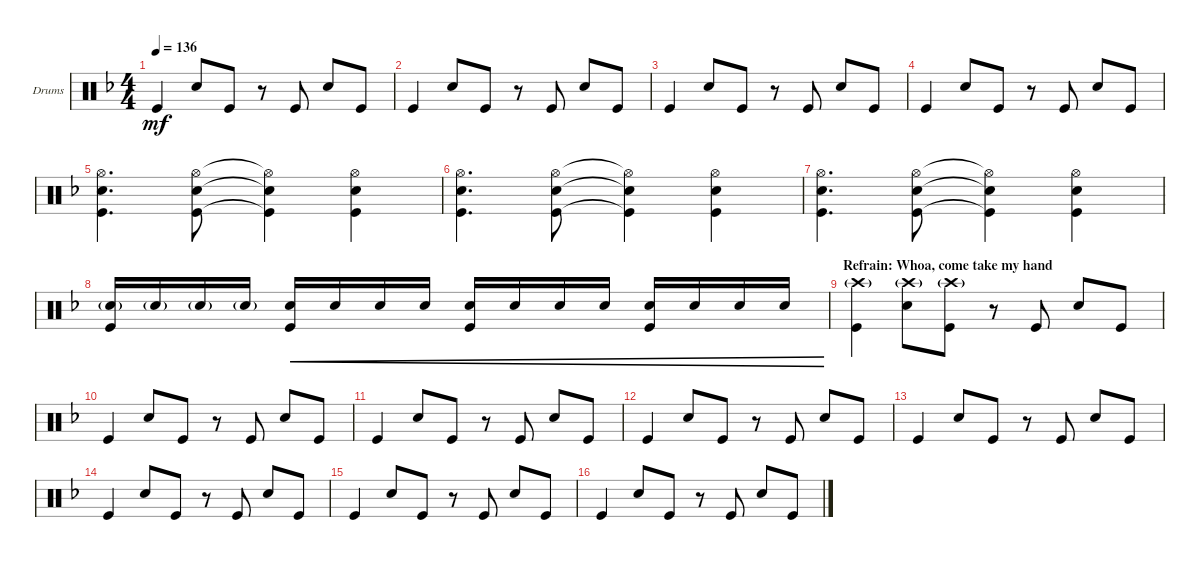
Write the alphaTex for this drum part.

\bracketExtendMode groupsimilarinstruments
\firstSystemTrackNameOrientation horizontal
\otherSystemsTrackNameOrientation horizontal
\track ("Drumkit" "Drums") {instrument percussion}
\staff {score}
\articulation defaults
\ts (4 4)
\tempo 136
\clef neutral
\scale
0.333333
\ks f "Kick (hit)".4{dy mf} "Snare (hit) 2".8 "Kick (hit)".8
r.8 "Kick (hit)".8 "Snare (hit) 2".8 "Kick (hit)".8 |
\scale
0.333333 "Kick (hit)".4 "Snare (hit) 2".8 "Kick (hit)".8 r.8 "Kick (hit)".8 "Snare (hit) 2".8 "Kick (hit)".8 |
\scale
0.333333 "Kick (hit)".4 "Snare (hit) 2".8 "Kick (hit)".8 r.8 "Kick (hit)".8 "Snare (hit) 2".8 "Kick (hit)".8 |
\scale
0.333333 "Kick (hit)".4 "Snare (hit) 2".8 "Kick (hit)".8 r.8 "Kick (hit)".8 "Snare (hit) 2".8 "Kick (hit)".8 |
\scale
0.333333 ("Kick (hit)" "Snare (hit) 2" "Hi-Hat (open)").4{d} ("Kick (hit)" "Snare (hit) 2" "Hi-Hat (open)").8 ("Kick (hit)"{t} "Snare (hit) 2"{t} "Hi-Hat (open)"{t}).4 ("Kick (hit)" "Snare (hit) 2" "Hi-Hat (open)").4 |
\scale
0.333333 ("Kick (hit)" "Snare (hit) 2" "Hi-Hat (open)").4{d} ("Kick (hit)" "Snare (hit) 2" "Hi-Hat (open)").8 ("Kick (hit)"{t} "Snare (hit) 2"{t} "Hi-Hat (open)"{t}).4 ("Kick (hit)" "Snare (hit) 2" "Hi-Hat (open)").4 |
\scale
0.333333 ("Kick (hit)" "Snare (hit) 2" "Hi-Hat (open)").4{d} ("Kick (hit)" "Snare (hit) 2" "Hi-Hat (open)").8 ("Kick (hit)"{t} "Snare (hit) 2"{t} "Hi-Hat (open)"{t}).4 ("Kick (hit)" "Snare (hit) 2" "Hi-Hat (open)").4 |
\scale
0.333333 ("Kick (hit)" "Snare (hit) 2"{g}).16 "Snare (hit) 2"{g}.16 "Snare (hit) 2"{g}.16 "Snare (hit) 2"{g}.16 ("Snare (hit) 2" "Kick (hit)").16{cre} "Snare (hit) 2".16{cre} "Snare (hit) 2".16{cre} "Snare (hit) 2".16{cre} ("Snare (hit) 2" "Kick (hit)").16{cre} "Snare (hit) 2".16{cre} "Snare (hit) 2".16{cre} "Snare (hit) 2".16{cre} ("Snare (hit) 2" "Kick (hit)").16{cre} "Snare (hit) 2".16{cre} "Snare (hit) 2".16{cre} "Snare (hit) 2".16{cre} |
\section ("" "Refrain: Whoa, come take my hand")
\scale
0.333333 ("Kick (hit)" "Crash high (hit)"{g}).4 ("Snare (hit) 2" "Crash high (hit)"{g}).8 ("Kick (hit)" "Crash high (hit)"{g}).8 r.8 "Kick (hit)".8 "Snare (hit) 2".8 "Kick (hit)".8 |
\scale
0.333333 "Kick (hit)".4 "Snare (hit) 2".8 "Kick (hit)".8 r.8 "Kick (hit)".8 "Snare (hit) 2".8 "Kick (hit)".8 |
\scale
0.333333 "Kick (hit)".4 "Snare (hit) 2".8 "Kick (hit)".8 r.8 "Kick (hit)".8 "Snare (hit) 2".8 "Kick (hit)".8 |
\scale
0.333333 "Kick (hit)".4 "Snare (hit) 2".8 "Kick (hit)".8 r.8 "Kick (hit)".8 "Snare (hit) 2".8 "Kick (hit)".8 |
\scale
0.333333 "Kick (hit)".4 "Snare (hit) 2".8 "Kick (hit)".8 r.8 "Kick (hit)".8 "Snare (hit) 2".8 "Kick (hit)".8 |
\scale
0.333333 "Kick (hit)".4 "Snare (hit) 2".8 "Kick (hit)".8 r.8 "Kick (hit)".8 "Snare (hit) 2".8 "Kick (hit)".8 |
\scale
0.333333 "Kick (hit)".4 "Snare (hit) 2".8 "Kick (hit)".8 r.8 "Kick (hit)".8 "Snare (hit) 2".8 "Kick (hit)".8 |
\scale
0.333333 "Kick (hit)".4 "Snare (hit) 2".8 "Kick (hit)".8 r.8 "Kick (hit)".8 "Snare (hit) 2".8 "Kick (hit)".8
